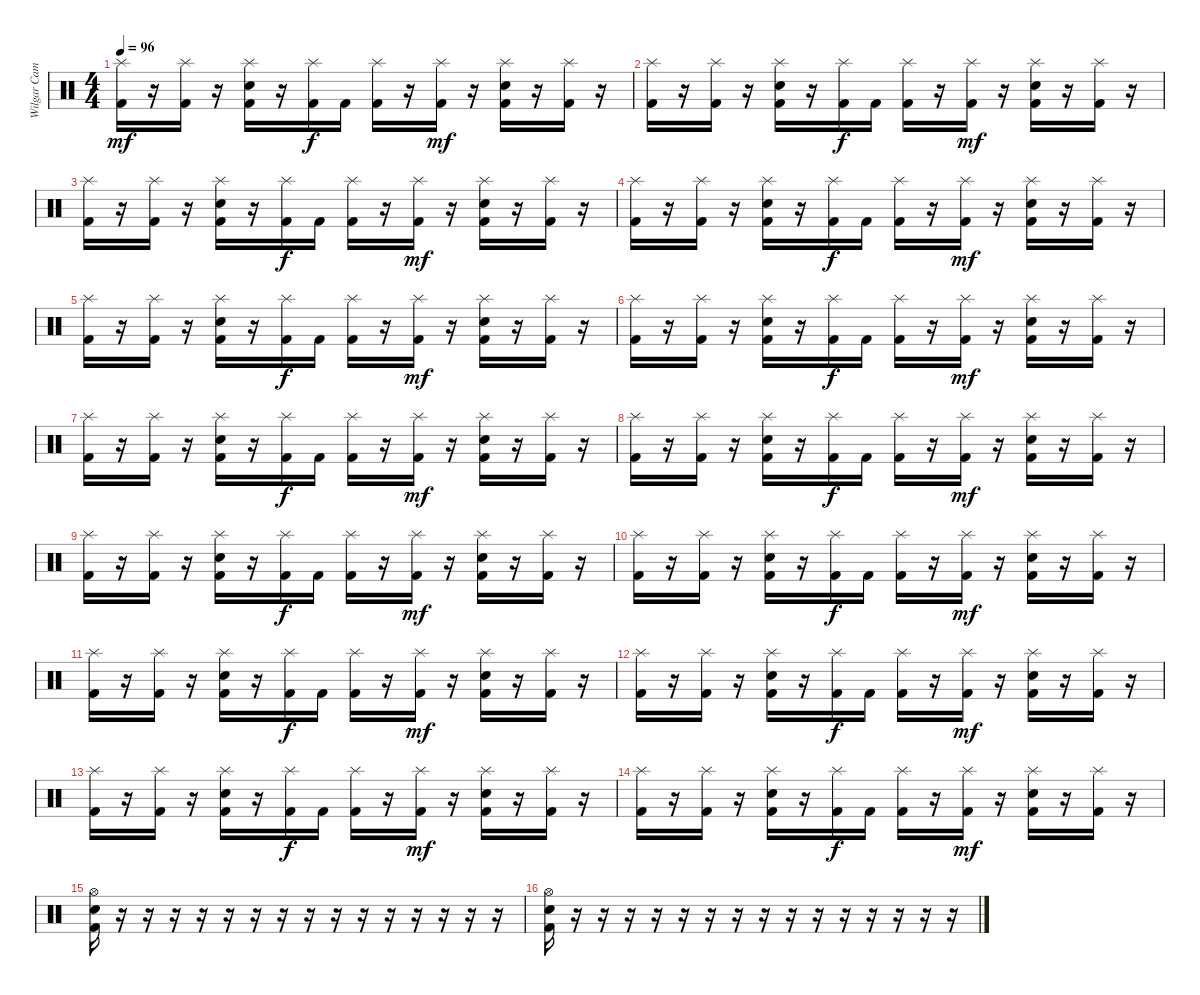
\track ("Wilgar Campbell" "Wilgar Cam") {instrument percussion}
\staff {score}
\articulation defaults
\ts (4 4)
\tempo 96
\clef neutral
\ks c
("Splash (hit)" "Kick (hit) 2").16{dy mf} r.16 ("Splash (hit)" "Kick (hit) 2").16 r.16 ("Splash (hit)" "Snare (hit) 2" "Kick (hit) 2").16 r.16 ("Splash (hit)" "Kick (hit) 2").16{dy f} "Kick (hit) 2".16 ("Splash (hit)" "Kick (hit) 2").16 r.16 ("Splash (hit)" "Kick (hit) 2").16{dy mf} r.16 ("Splash (hit)" "Snare (hit) 2" "Kick (hit) 2").16 r.16 ("Splash (hit)" "Kick (hit) 2").16 r.16 |
("Splash (hit)" "Kick (hit) 2").16 r.16 ("Splash (hit)" "Kick (hit) 2").16 r.16 ("Splash (hit)" "Snare (hit) 2" "Kick (hit) 2").16 r.16 ("Splash (hit)" "Kick (hit) 2").16{dy f} "Kick (hit) 2".16 ("Splash (hit)" "Kick (hit) 2").16 r.16 ("Splash (hit)" "Kick (hit) 2").16{dy mf} r.16 ("Splash (hit)" "Snare (hit) 2" "Kick (hit) 2").16 r.16 ("Splash (hit)" "Kick (hit) 2").16 r.16 |
("Splash (hit)" "Kick (hit) 2").16 r.16 ("Splash (hit)" "Kick (hit) 2").16 r.16 ("Splash (hit)" "Snare (hit) 2" "Kick (hit) 2").16 r.16 ("Splash (hit)" "Kick (hit) 2").16{dy f} "Kick (hit) 2".16 ("Splash (hit)" "Kick (hit) 2").16 r.16 ("Splash (hit)" "Kick (hit) 2").16{dy mf} r.16 ("Splash (hit)" "Snare (hit) 2" "Kick (hit) 2").16 r.16 ("Splash (hit)" "Kick (hit) 2").16 r.16 |
("Splash (hit)" "Kick (hit) 2").16 r.16 ("Splash (hit)" "Kick (hit) 2").16 r.16 ("Splash (hit)" "Snare (hit) 2" "Kick (hit) 2").16 r.16 ("Splash (hit)" "Kick (hit) 2").16{dy f} "Kick (hit) 2".16 ("Splash (hit)" "Kick (hit) 2").16 r.16 ("Splash (hit)" "Kick (hit) 2").16{dy mf} r.16 ("Splash (hit)" "Snare (hit) 2" "Kick (hit) 2").16 r.16 ("Splash (hit)" "Kick (hit) 2").16 r.16 |
("Splash (hit)" "Kick (hit) 2").16 r.16 ("Splash (hit)" "Kick (hit) 2").16 r.16 ("Splash (hit)" "Snare (hit) 2" "Kick (hit) 2").16 r.16 ("Splash (hit)" "Kick (hit) 2").16{dy f} "Kick (hit) 2".16 ("Splash (hit)" "Kick (hit) 2").16 r.16 ("Splash (hit)" "Kick (hit) 2").16{dy mf} r.16 ("Splash (hit)" "Snare (hit) 2" "Kick (hit) 2").16 r.16 ("Splash (hit)" "Kick (hit) 2").16 r.16 |
("Splash (hit)" "Kick (hit) 2").16 r.16 ("Splash (hit)" "Kick (hit) 2").16 r.16 ("Splash (hit)" "Snare (hit) 2" "Kick (hit) 2").16 r.16 ("Splash (hit)" "Kick (hit) 2").16{dy f} "Kick (hit) 2".16 ("Splash (hit)" "Kick (hit) 2").16 r.16 ("Splash (hit)" "Kick (hit) 2").16{dy mf} r.16 ("Splash (hit)" "Snare (hit) 2" "Kick (hit) 2").16 r.16 ("Splash (hit)" "Kick (hit) 2").16 r.16 |
("Splash (hit)" "Kick (hit) 2").16 r.16 ("Splash (hit)" "Kick (hit) 2").16 r.16 ("Splash (hit)" "Snare (hit) 2" "Kick (hit) 2").16 r.16 ("Splash (hit)" "Kick (hit) 2").16{dy f} "Kick (hit) 2".16 ("Splash (hit)" "Kick (hit) 2").16 r.16 ("Splash (hit)" "Kick (hit) 2").16{dy mf} r.16 ("Splash (hit)" "Snare (hit) 2" "Kick (hit) 2").16 r.16 ("Splash (hit)" "Kick (hit) 2").16 r.16 |
("Splash (hit)" "Kick (hit) 2").16 r.16 ("Splash (hit)" "Kick (hit) 2").16 r.16 ("Splash (hit)" "Snare (hit) 2" "Kick (hit) 2").16 r.16 ("Splash (hit)" "Kick (hit) 2").16{dy f} "Kick (hit) 2".16 ("Splash (hit)" "Kick (hit) 2").16 r.16 ("Splash (hit)" "Kick (hit) 2").16{dy mf} r.16 ("Splash (hit)" "Snare (hit) 2" "Kick (hit) 2").16 r.16 ("Splash (hit)" "Kick (hit) 2").16 r.16 |
("Splash (hit)" "Kick (hit) 2").16 r.16 ("Splash (hit)" "Kick (hit) 2").16 r.16 ("Splash (hit)" "Snare (hit) 2" "Kick (hit) 2").16 r.16 ("Splash (hit)" "Kick (hit) 2").16{dy f} "Kick (hit) 2".16 ("Splash (hit)" "Kick (hit) 2").16 r.16 ("Splash (hit)" "Kick (hit) 2").16{dy mf} r.16 ("Splash (hit)" "Snare (hit) 2" "Kick (hit) 2").16 r.16 ("Splash (hit)" "Kick (hit) 2").16 r.16 |
("Splash (hit)" "Kick (hit) 2").16 r.16 ("Splash (hit)" "Kick (hit) 2").16 r.16 ("Splash (hit)" "Snare (hit) 2" "Kick (hit) 2").16 r.16 ("Splash (hit)" "Kick (hit) 2").16{dy f} "Kick (hit) 2".16 ("Splash (hit)" "Kick (hit) 2").16 r.16 ("Splash (hit)" "Kick (hit) 2").16{dy mf} r.16 ("Splash (hit)" "Snare (hit) 2" "Kick (hit) 2").16 r.16 ("Splash (hit)" "Kick (hit) 2").16 r.16 |
("Splash (hit)" "Kick (hit) 2").16 r.16 ("Splash (hit)" "Kick (hit) 2").16 r.16 ("Splash (hit)" "Snare (hit) 2" "Kick (hit) 2").16 r.16 ("Splash (hit)" "Kick (hit) 2").16{dy f} "Kick (hit) 2".16 ("Splash (hit)" "Kick (hit) 2").16 r.16 ("Splash (hit)" "Kick (hit) 2").16{dy mf} r.16 ("Splash (hit)" "Snare (hit) 2" "Kick (hit) 2").16 r.16 ("Splash (hit)" "Kick (hit) 2").16 r.16 |
("Splash (hit)" "Kick (hit) 2").16 r.16 ("Splash (hit)" "Kick (hit) 2").16 r.16 ("Splash (hit)" "Snare (hit) 2" "Kick (hit) 2").16 r.16 ("Splash (hit)" "Kick (hit) 2").16{dy f} "Kick (hit) 2".16 ("Splash (hit)" "Kick (hit) 2").16 r.16 ("Splash (hit)" "Kick (hit) 2").16{dy mf} r.16 ("Splash (hit)" "Snare (hit) 2" "Kick (hit) 2").16 r.16 ("Splash (hit)" "Kick (hit) 2").16 r.16 |
("Splash (hit)" "Kick (hit) 2").16 r.16 ("Splash (hit)" "Kick (hit) 2").16 r.16 ("Splash (hit)" "Snare (hit) 2" "Kick (hit) 2").16 r.16 ("Splash (hit)" "Kick (hit) 2").16{dy f} "Kick (hit) 2".16 ("Splash (hit)" "Kick (hit) 2").16 r.16 ("Splash (hit)" "Kick (hit) 2").16{dy mf} r.16 ("Splash (hit)" "Snare (hit) 2" "Kick (hit) 2").16 r.16 ("Splash (hit)" "Kick (hit) 2").16 r.16 |
("Splash (hit)" "Kick (hit) 2").16 r.16 ("Splash (hit)" "Kick (hit) 2").16 r.16 ("Splash (hit)" "Snare (hit) 2" "Kick (hit) 2").16 r.16 ("Splash (hit)" "Kick (hit) 2").16{dy f} "Kick (hit) 2".16 ("Splash (hit)" "Kick (hit) 2").16 r.16 ("Splash (hit)" "Kick (hit) 2").16{dy mf} r.16 ("Splash (hit)" "Snare (hit) 2" "Kick (hit) 2").16 r.16 ("Splash (hit)" "Kick (hit) 2").16 r.16 |
("Hi-Hat (open)" "Snare (hit) 2" "Kick (hit) 2").16 r.16 r.16 r.16 r.16 r.16 r.16 r.16 r.16 r.16 r.16 r.16 r.16 r.16 r.16 r.16 |
("Hi-Hat (open)" "Snare (hit) 2" "Kick (hit) 2").16 r.16 r.16 r.16 r.16 r.16 r.16 r.16 r.16 r.16 r.16 r.16 r.16 r.16 r.16 r.16
